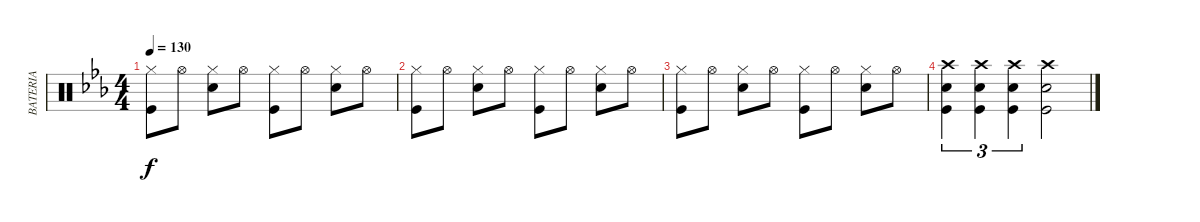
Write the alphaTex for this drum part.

\track ("BATERIA" "BATERIA") {instrument percussion}
\staff {score}
\articulation defaults
\ts (4 4)
\tempo 130
\clef neutral
\ks cminor
("Kick (hit)" "Hi-Hat (closed)").8{dy f} "Hi-Hat (open)".8 ("Hi-Hat (closed)" "Snare (hit) 2").8 "Hi-Hat (open)".8 ("Kick (hit)" "Hi-Hat (closed)").8 "Hi-Hat (open)".8 ("Hi-Hat (closed)" "Snare (hit) 2").8 "Hi-Hat (open)".8 |
("Kick (hit)" "Hi-Hat (closed)").8 "Hi-Hat (open)".8 ("Hi-Hat (closed)" "Snare (hit) 2").8 "Hi-Hat (open)".8 ("Kick (hit)" "Hi-Hat (closed)").8 "Hi-Hat (open)".8 ("Hi-Hat (closed)" "Snare (hit) 2").8 "Hi-Hat (open)".8 |
("Kick (hit)" "Hi-Hat (closed)").8 "Hi-Hat (open)".8 ("Hi-Hat (closed)" "Snare (hit) 2").8 "Hi-Hat (open)".8 ("Kick (hit)" "Hi-Hat (closed)").8 "Hi-Hat (open)".8 ("Hi-Hat (closed)" "Snare (hit) 2").8 "Hi-Hat (open)".8 |
("Kick (hit)" "Crash high (hit)" "Snare (hit) 2").4{tu (3 2)} ("Kick (hit)" "Crash high (hit)" "Snare (hit) 2").4{tu (3 2)} ("Kick (hit)" "Crash high (hit)" "Snare (hit) 2").4{tu (3 2)} ("Kick (hit)" "Crash high (hit)" "Snare (hit) 2").2
